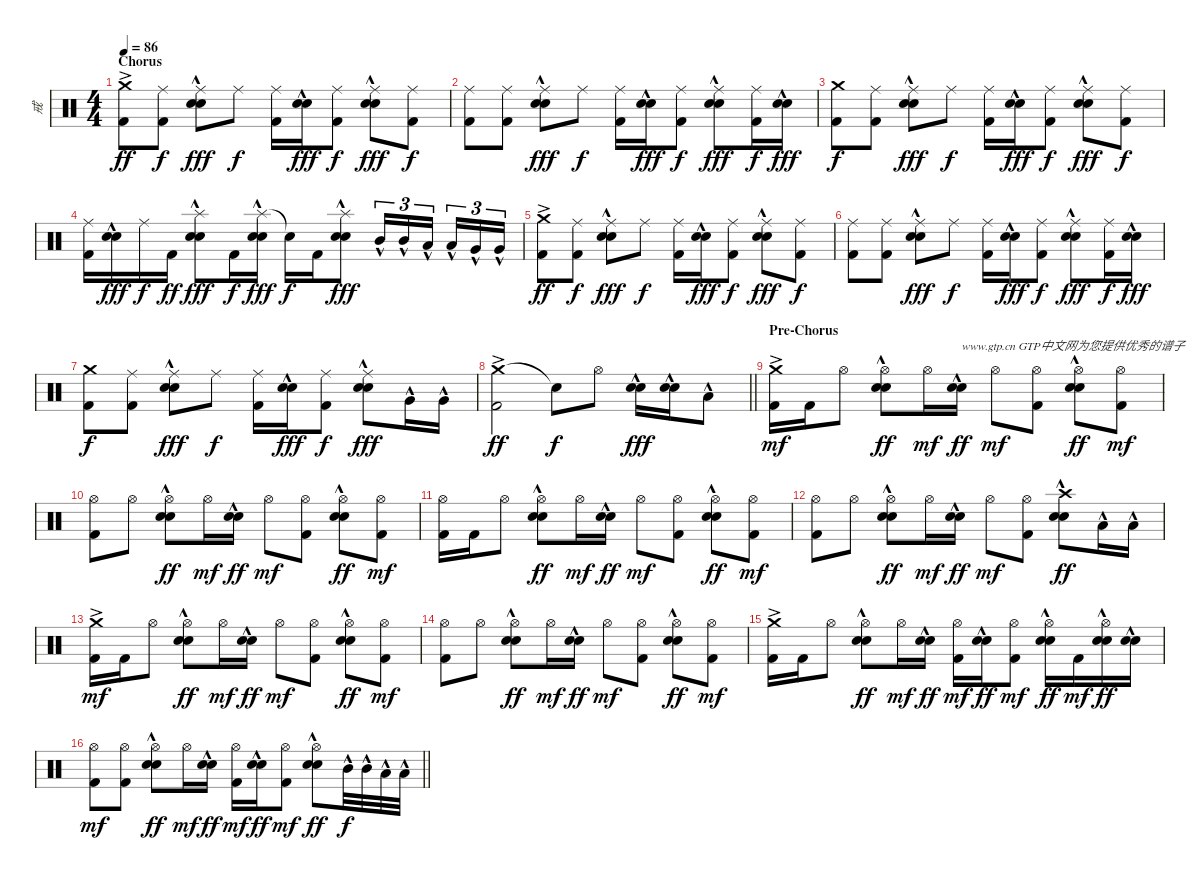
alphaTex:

\track ("戒" "戒") {instrument percussion}
\staff {score}
\articulation defaults
\ts (4 4)
\section ("" "Chorus")
\tempo 86
\clef neutral
\ks c
("Crash medium (hit)"{ac} "Kick (hit) 2").8{dy ff} ("Ride (middle)" "Kick (hit) 2").8{dy f} ("Ride (middle)" "Electric Snare (hit)"{hac} "Snare (hit) 2"{hac}).8{dy fff} "Ride (middle)".8{dy f} ("Ride (middle)" "Kick (hit) 2").16 ("Electric Snare (hit)"{hac} "Snare (hit) 2"{hac}).16{dy fff} ("Ride (middle)" "Kick (hit) 2").8{dy f} ("Ride (middle)" "Electric Snare (hit)"{hac} "Snare (hit) 2"{hac}).8{dy fff} ("Ride (middle)" "Kick (hit) 2").8{dy f} |
("Ride (middle)" "Kick (hit) 2").8 ("Ride (middle)" "Kick (hit) 2").8 ("Ride (middle)" "Electric Snare (hit)"{hac} "Snare (hit) 2"{hac}).8{dy fff} "Ride (middle)".8{dy f} ("Ride (middle)" "Kick (hit) 2").16 ("Electric Snare (hit)"{hac} "Snare (hit) 2"{hac}).16{dy fff} ("Ride (middle)" "Kick (hit) 2").8{dy f} ("Ride (middle)" "Electric Snare (hit)"{hac} "Snare (hit) 2"{hac}).8{dy fff} ("Ride (middle)" "Kick (hit) 2").16{dy f} ("Electric Snare (hit)"{hac} "Snare (hit) 2"{hac}).16{dy fff} |
("Crash medium (hit)" "Kick (hit) 2").8{dy f} ("Ride (middle)" "Kick (hit) 2").8 ("Ride (middle)" "Electric Snare (hit)"{hac} "Snare (hit) 2"{hac}).8{dy fff} "Ride (middle)".8{dy f} ("Ride (middle)" "Kick (hit) 2").16 ("Electric Snare (hit)"{hac} "Snare (hit) 2"{hac}).16{dy fff} ("Ride (middle)" "Kick (hit) 2").8{dy f} ("Ride (middle)" "Electric Snare (hit)"{hac} "Snare (hit) 2"{hac}).8{dy fff} ("Ride (middle)" "Kick (hit) 2").8{dy f} |
("Ride (middle)" "Kick (hit) 2").16 ("Electric Snare (hit)"{hac} "Snare (hit) 2"{hac}).16{dy fff} "Ride (middle)".16{dy f} "Kick (hit) 2".16{dy ff} ("Splash (hit)"{hac} "Electric Snare (hit)"{hac} "Snare (hit) 2"{hac}).8{dy fff} "Kick (hit) 2".16{dy f} ("Splash (hit)"{hac} "Electric Snare (hit)"{hac} "Snare (hit) 2"{hac}).16{dy fff} "Snare (hit)"{t}.16{dy f} "Kick (hit) 2".16 ("Splash (hit)"{hac} "Electric Snare (hit)"{hac} "Snare (hit) 2"{hac}).8{dy fff} "Mid Tom (hit)"{hac}.16{tu (3 2)} "Mid Tom (hit)"{hac}.16{tu (3 2)} "Low Tom (hit)"{hac}.16{tu (3 2) beam splitsecondary} "Low Tom (hit)"{hac}.16{tu (3 2)} "Very Low Tom (hit)"{hac}.16{tu (3 2)} "Very Low Tom (hit)"{hac}.16{tu (3 2)} |
("Crash medium (hit)"{ac} "Kick (hit) 2").8{dy ff} ("Ride (middle)" "Kick (hit) 2").8{dy f} ("Ride (middle)" "Electric Snare (hit)"{hac} "Snare (hit) 2"{hac}).8{dy fff} "Ride (middle)".8{dy f} ("Ride (middle)" "Kick (hit) 2").16 ("Electric Snare (hit)"{hac} "Snare (hit) 2"{hac}).16{dy fff} ("Ride (middle)" "Kick (hit) 2").8{dy f} ("Ride (middle)" "Electric Snare (hit)"{hac} "Snare (hit) 2"{hac}).8{dy fff} ("Ride (middle)" "Kick (hit) 2").8{dy f} |
("Ride (middle)" "Kick (hit) 2").8 ("Ride (middle)" "Kick (hit) 2").8 ("Ride (middle)" "Electric Snare (hit)"{hac} "Snare (hit) 2"{hac}).8{dy fff} "Ride (middle)".8{dy f} ("Ride (middle)" "Kick (hit) 2").16 ("Electric Snare (hit)"{hac} "Snare (hit) 2"{hac}).16{dy fff} ("Ride (middle)" "Kick (hit) 2").8{dy f} ("Ride (middle)" "Electric Snare (hit)"{hac} "Snare (hit) 2"{hac}).8{dy fff} ("Ride (middle)" "Kick (hit) 2").16{dy f} ("Electric Snare (hit)"{hac} "Snare (hit) 2"{hac}).16{dy fff} |
("Crash medium (hit)" "Kick (hit) 2").8{dy f} ("Ride (middle)" "Kick (hit) 2").8 ("Ride (middle)" "Electric Snare (hit)"{hac} "Snare (hit) 2"{hac}).8{dy fff} "Ride (middle)".8{dy f} ("Ride (middle)" "Kick (hit) 2").16 ("Electric Snare (hit)"{hac} "Snare (hit) 2"{hac}).16{dy fff} ("Ride (middle)" "Kick (hit) 2").8{dy f} ("Ride (middle)" "Electric Snare (hit)"{hac} "Snare (hit) 2"{hac}).8{dy fff} "Very Low Tom (hit)"{hac}.16 "Very Low Tom (hit)"{hac}.16 |
\barLineRight lightlight
("Crash medium (hit)"{ac} "Kick (hit) 2").2{dy ff} "Snare (hit)"{t}.8{dy f} "Hi-Hat (open)".8 ("Electric Snare (hit)"{hac} "Snare (hit) 2"{hac}).16{dy fff} ("Electric Snare (hit)"{hac} "Snare (hit) 2"{hac}).16 "Low Tom (hit)"{hac}.8 |
\section ("" "Pre-Chorus")
("Crash medium (hit)"{ac} "Kick (hit) 2").16{dy mf} "Kick (hit) 2".16 "Hi-Hat (open)".8 ("Hi-Hat (open)" "Electric Snare (hit)"{hac} "Snare (hit) 2"{hac}).8{dy ff} "Hi-Hat (open)".16{dy mf} ("Electric Snare (hit)"{hac} "Snare (hit) 2"{hac}).16{txt "www.gtp.cn GTP中文网为您提供优秀的谱子" dy ff} "Hi-Hat (open)".8{dy mf} ("Hi-Hat (open)" "Kick (hit) 2").8 ("Hi-Hat (open)" "Electric Snare (hit)"{hac} "Snare (hit) 2"{hac}).8{dy ff} ("Hi-Hat (open)" "Kick (hit) 2").8{dy mf} |
("Hi-Hat (open)" "Kick (hit) 2").8 "Hi-Hat (open)".8 ("Hi-Hat (open)" "Electric Snare (hit)"{hac} "Snare (hit) 2"{hac}).8{dy ff} "Hi-Hat (open)".16{dy mf} ("Electric Snare (hit)"{hac} "Snare (hit) 2"{hac}).16{dy ff} "Hi-Hat (open)".8{dy mf} ("Hi-Hat (open)" "Kick (hit) 2").8 ("Hi-Hat (open)" "Electric Snare (hit)"{hac} "Snare (hit) 2"{hac}).8{dy ff} ("Hi-Hat (open)" "Kick (hit) 2").8{dy mf} |
("Hi-Hat (open)" "Kick (hit) 2").16 "Kick (hit) 2".16 "Hi-Hat (open)".8 ("Hi-Hat (open)" "Electric Snare (hit)"{hac} "Snare (hit) 2"{hac}).8{dy ff} "Hi-Hat (open)".16{dy mf} ("Electric Snare (hit)"{hac} "Snare (hit) 2"{hac}).16{dy ff} "Hi-Hat (open)".8{dy mf} ("Hi-Hat (open)" "Kick (hit) 2").8 ("Hi-Hat (open)" "Electric Snare (hit)"{hac} "Snare (hit) 2"{hac}).8{dy ff} ("Hi-Hat (open)" "Kick (hit) 2").8{dy mf} |
("Hi-Hat (open)" "Kick (hit) 2").8 "Hi-Hat (open)".8 ("Hi-Hat (open)" "Electric Snare (hit)"{hac} "Snare (hit) 2"{hac}).8{dy ff} "Hi-Hat (open)".16{dy mf} ("Electric Snare (hit)"{hac} "Snare (hit) 2"{hac}).16{dy ff} "Hi-Hat (open)".8{dy mf} ("Hi-Hat (open)" "Kick (hit) 2").8 ("Crash high (hit)" "Electric Snare (hit)"{hac} "Snare (hit) 2"{hac}).8{dy ff} "Low Tom (hit)"{hac}.16 "Low Tom (hit)"{hac}.16 |
("Crash medium (hit)"{ac} "Kick (hit) 2").16{dy mf} "Kick (hit) 2".16 "Hi-Hat (open)".8 ("Hi-Hat (open)" "Electric Snare (hit)"{hac} "Snare (hit) 2"{hac}).8{dy ff} "Hi-Hat (open)".16{dy mf} ("Electric Snare (hit)"{hac} "Snare (hit) 2"{hac}).16{dy ff} "Hi-Hat (open)".8{dy mf} ("Hi-Hat (open)" "Kick (hit) 2").8 ("Hi-Hat (open)" "Electric Snare (hit)"{hac} "Snare (hit) 2"{hac}).8{dy ff} ("Hi-Hat (open)" "Kick (hit) 2").8{dy mf} |
("Hi-Hat (open)" "Kick (hit) 2").8 "Hi-Hat (open)".8 ("Hi-Hat (open)" "Electric Snare (hit)"{hac} "Snare (hit) 2"{hac}).8{dy ff} "Hi-Hat (open)".16{dy mf} ("Electric Snare (hit)"{hac} "Snare (hit) 2"{hac}).16{dy ff} "Hi-Hat (open)".8{dy mf} ("Hi-Hat (open)" "Kick (hit) 2").8 ("Hi-Hat (open)" "Electric Snare (hit)"{hac} "Snare (hit) 2"{hac}).8{dy ff} ("Hi-Hat (open)" "Kick (hit) 2").8{dy mf} |
("Crash medium (hit)"{ac} "Kick (hit) 2").16 "Kick (hit) 2".16 "Hi-Hat (open)".8 ("Hi-Hat (open)" "Electric Snare (hit)"{hac} "Snare (hit) 2"{hac}).8{dy ff} "Hi-Hat (open)".16{dy mf} ("Electric Snare (hit)"{hac} "Snare (hit) 2"{hac}).16{dy ff} ("Hi-Hat (open)" "Kick (hit) 2").16{dy mf} ("Electric Snare (hit)"{hac} "Snare (hit) 2"{hac}).16{dy ff} ("Hi-Hat (open)" "Kick (hit) 2").8{dy mf} ("Hi-Hat (open)" "Electric Snare (hit)"{hac} "Snare (hit) 2"{hac}).16{dy ff} "Kick (hit) 2".16{dy mf} ("Hi-Hat (open)" "Electric Snare (hit)"{hac} "Snare (hit) 2"{hac}).16{dy ff} ("Electric Snare (hit)"{hac} "Snare (hit) 2"{hac}).16 |
\barLineRight lightlight
("Hi-Hat (open)" "Kick (hit) 2").8{dy mf} ("Hi-Hat (open)" "Kick (hit) 2").8 ("Hi-Hat (open)" "Electric Snare (hit)"{hac} "Snare (hit) 2"{hac}).8{dy ff} "Hi-Hat (open)".16{dy mf} ("Electric Snare (hit)"{hac} "Snare (hit) 2"{hac}).16{dy ff} ("Hi-Hat (open)" "Kick (hit) 2").16{dy mf} ("Electric Snare (hit)"{hac} "Snare (hit) 2"{hac}).16{dy ff} ("Hi-Hat (open)" "Kick (hit) 2").8{dy mf} ("Hi-Hat (open)" "Electric Snare (hit)"{hac} "Snare (hit) 2"{hac}).8{dy ff} "Mid Tom (hit)"{hac}.32{dy f} "Mid Tom (hit)"{hac}.32 "Low Tom (hit)"{hac}.32 "Low Tom (hit)"{hac}.32
